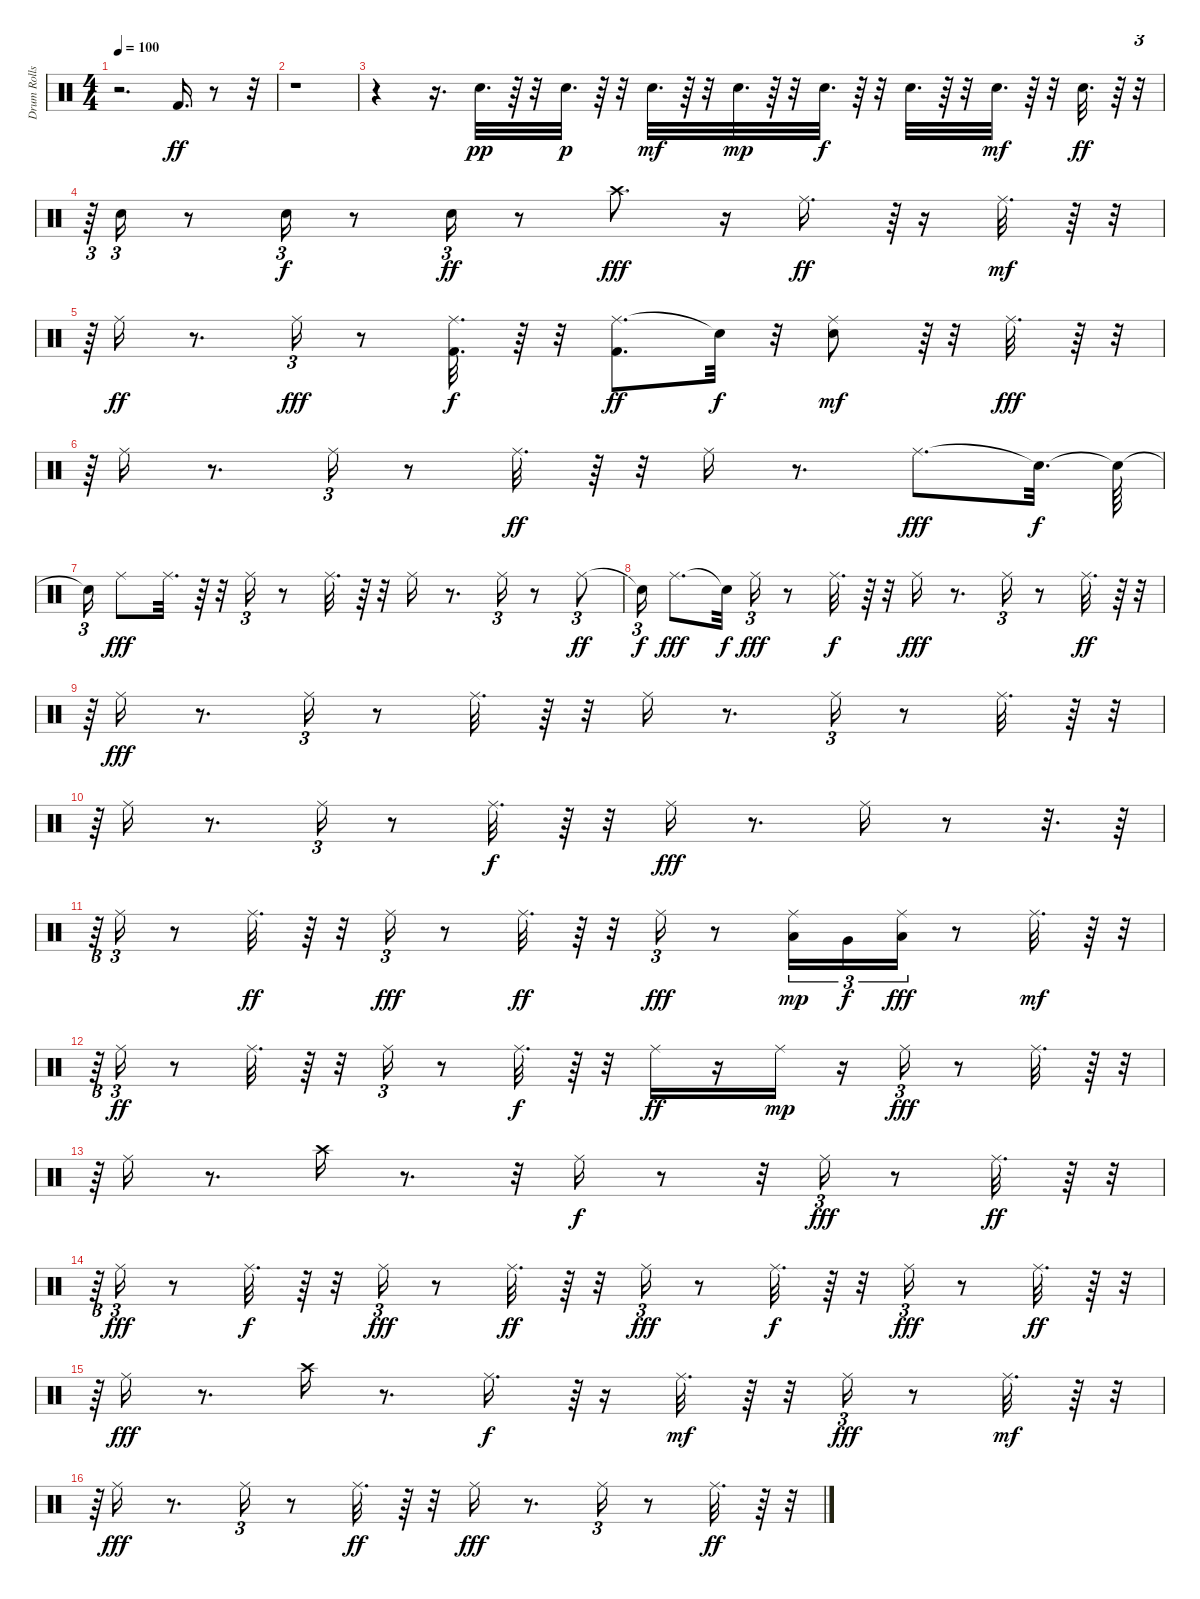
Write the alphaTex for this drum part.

\track ("Drum Rolls" "Drum Rolls") {instrument percussion}
\staff {score}
\articulation defaults
\ts (4 4)
\tempo 100
\clef neutral
\ks c
r.2{d dy fff} "Kick (hit) 2".16{d dy ff} r.8 r.32 |
r.1 |
r.4 r.16{d} "Electric Snare (hit)".32{d dy pp} r.64 r.32 "Electric Snare (hit)".32{d dy p} r.64 r.32 "Electric Snare (hit)".32{d dy mf} r.64 r.32 "Electric Snare (hit)".32{d dy mp} r.64 r.32 "Electric Snare (hit)".32{d dy f} r.64 r.32 "Electric Snare (hit)".32{d} r.64 r.32 "Electric Snare (hit)".32{d dy mf} r.64 r.32 "Electric Snare (hit)".32{d dy ff} r.64 r.32{tu (3 2)} |
r.64{tu (3 2)} "Electric Snare (hit)".16{tu (3 2)} r.8 "Electric Snare (hit)".16{tu (3 2) dy f} r.8 "Electric Snare (hit)".16{tu (3 2) dy ff} r.8 "Crash high (hit)".8{d dy fff} r.16 "Ride (middle)".16{d dy ff} r.64{tu (3 2)} r.16 "Ride (middle)".32{d dy mf} r.64 r.32{tu (3 2)} |
r.64{tu (3 2)} "Ride (middle)".16{dy ff} r.8{d} "Ride (middle)".16{tu (3 2) dy fff} r.8 ("Kick (hit) 2" "Ride (middle)").32{d dy f} r.64 r.32 ("Ride (middle)" "Kick (hit) 2").8{d dy ff} "Snare (hit)"{t}.32{dy f} r.32 ("Ride (middle)" "Electric Snare (hit)").8{dy mf} r.64{tu (3 2)} r.32 "Ride (middle)".32{d dy fff} r.64 r.32{tu (3 2)} |
r.64{tu (3 2)} "Ride (middle)".16 r.8{d} "Ride (middle)".16{tu (3 2)} r.8 "Ride (middle)".32{d dy ff} r.64 r.32 "Ride (middle)".16 r.8{d} "Ride (middle)".8{d dy fff} "Snare (hit)"{t}.32{d dy f} "Snare (hit)"{t}.64 |
"Snare (hit)"{t}.16{tu (3 2)} "Ride (middle)".8{dy fff} "Ride (middle)".32{d} r.64 r.32 "Ride (middle)".16{tu (3 2)} r.8 "Ride (middle)".32{d} r.64 r.32 "Ride (middle)".16 r.8{d} "Ride (middle)".16{tu (3 2)} r.8 "Ride (middle)".8{tu (3 2) dy ff} |
"Snare (hit)"{t}.16{tu (3 2) dy f} "Ride (middle)".8{d dy fff} "Snare (hit)"{t}.32{dy f} "Ride (middle)".16{tu (3 2) dy fff} r.8 "Ride (middle)".32{d dy f} r.64 r.32 "Ride (middle)".16{dy fff} r.8{d} "Ride (middle)".16{tu (3 2)} r.8 "Ride (middle)".32{d dy ff} r.64 r.32{tu (3 2)} |
r.64{tu (3 2)} "Ride (middle)".16{dy fff} r.8{d} "Ride (middle)".16{tu (3 2)} r.8 "Ride (middle)".32{d} r.64 r.32 "Ride (middle)".16 r.8{d} "Ride (middle)".16{tu (3 2)} r.8 "Ride (middle)".32{d} r.64 r.32{tu (3 2)} |
r.64{tu (3 2)} "Ride (middle)".16 r.8{d} "Ride (middle)".16{tu (3 2)} r.8 "Ride (middle)".32{d dy f} r.64 r.32 "Ride (middle)".16{dy fff} r.8{d} "Ride (middle)".16 r.8 r.32{d} r.64 |
r.64{tu (3 2)} "Ride (middle)".16{tu (3 2)} r.8 "Ride (middle)".32{d dy ff} r.64 r.32 "Ride (middle)".16{tu (3 2) dy fff} r.8 "Ride (middle)".32{d dy ff} r.64 r.32 "Ride (middle)".16{tu (3 2) dy fff} r.8 ("Ride (middle)" "Low Floor Tom (hit)").16{tu (3 2) dy mp} "Very Low Tom (hit)".16{tu (3 2) dy f} ("Ride (middle)" "Low Tom (hit)").16{tu (3 2) dy fff} r.8 "Ride (middle)".32{d dy mf} r.64 r.32{tu (3 2)} |
r.64{tu (3 2)} "Ride (middle)".16{tu (3 2) dy ff} r.8 "Ride (middle)".32{d} r.64 r.32 "Ride (middle)".16{tu (3 2)} r.8 "Ride (middle)".32{d dy f} r.64 r.32 "Ride (middle)".16{dy ff} r.16 "Ride (middle)".16{dy mp} r.16 "Ride (middle)".16{tu (3 2) dy fff} r.8 "Ride (middle)".32{d} r.64 r.32{tu (3 2)} |
r.64{tu (3 2)} "Ride (middle)".16 r.8{d} "Crash high (hit)".16 r.8{d} r.32 "Ride (middle)".16{dy f} r.8 r.32 "Ride (middle)".16{tu (3 2) dy fff} r.8 "Ride (middle)".32{d dy ff} r.64 r.32{tu (3 2)} |
r.64{tu (3 2)} "Ride (middle)".16{tu (3 2) dy fff} r.8 "Ride (middle)".32{d dy f} r.64 r.32 "Ride (middle)".16{tu (3 2) dy fff} r.8 "Ride (middle)".32{d dy ff} r.64 r.32 "Ride (middle)".16{tu (3 2) dy fff} r.8 "Ride (middle)".32{d dy f} r.64 r.32 "Ride (middle)".16{tu (3 2) dy fff} r.8 "Ride (middle)".32{d dy ff} r.64 r.32{tu (3 2)} |
r.64{tu (3 2)} "Ride (middle)".16{dy fff} r.8{d} "Crash high (hit)".16 r.8{d} "Ride (middle)".16{d dy f} r.64{tu (3 2)} r.16 "Ride (middle)".32{d dy mf} r.64 r.32 "Ride (middle)".16{tu (3 2) dy fff} r.8 "Ride (middle)".32{d dy mf} r.64 r.32{tu (3 2)} |
r.64{tu (3 2)} "Ride (middle)".16{dy fff} r.8{d} "Ride (middle)".16{tu (3 2)} r.8 "Ride (middle)".32{d dy ff} r.64 r.32 "Ride (middle)".16{dy fff} r.8{d} "Ride (middle)".16{tu (3 2)} r.8 "Ride (middle)".32{d dy ff} r.64 r.32{tu (3 2)}
